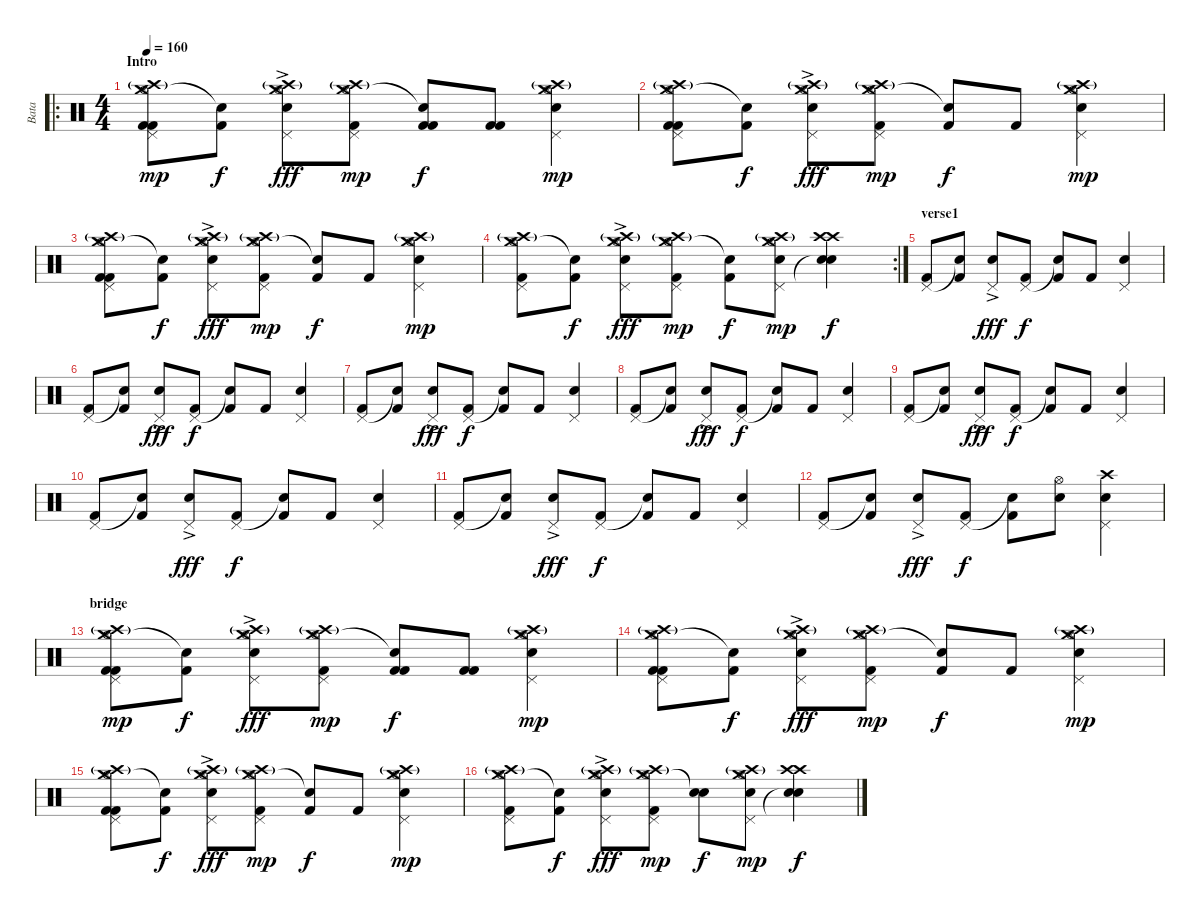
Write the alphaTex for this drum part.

\track ("Bata" "Bata") {instrument percussion}
\staff {score}
\articulation defaults
\ro
\ts (4 4)
\section ("" "Intro")
\tempo 160
\clef neutral
\ks c
("Crash medium (hit)" "Crash high (hit)"{g} "Pedal Hi-Hat (hit)" "Hi-Hat (open)" "Kick (hit) 2" "Kick (hit) 2").8{dy mp} ("Snare (hit)"{t} "Kick (hit) 2").8{dy f} ("Crash medium (hit)"{ac} "Crash high (hit)"{g} "Pedal Hi-Hat (hit)"{ac} "Hi-Hat (open)" "Snare (hit) 2").8{dy fff} ("Crash medium (hit)" "Crash high (hit)"{g} "Pedal Hi-Hat (hit)" "Hi-Hat (open)" "Kick (hit) 2").8{dy mp} ("Snare (hit)"{t} "Kick (hit) 2" "Kick (hit) 2").8{dy f} ("Kick (hit) 2" "Kick (hit) 2").8 ("Crash medium (hit)" "Crash high (hit)"{g} "Pedal Hi-Hat (hit)" "Hi-Hat (open)" "Snare (hit) 2").4{dy mp} |
("Crash medium (hit)" "Crash high (hit)"{g} "Pedal Hi-Hat (hit)" "Hi-Hat (open)" "Kick (hit) 2" "Kick (hit) 2").8 ("Snare (hit)"{t} "Kick (hit) 2").8{dy f} ("Crash medium (hit)"{ac} "Crash high (hit)"{g} "Pedal Hi-Hat (hit)"{ac} "Hi-Hat (open)" "Snare (hit) 2").8{dy fff} ("Crash medium (hit)" "Crash high (hit)"{g} "Pedal Hi-Hat (hit)" "Hi-Hat (open)" "Kick (hit) 2").8{dy mp} ("Snare (hit)"{t} "Kick (hit) 2").8{dy f} "Kick (hit) 2".8 ("Crash medium (hit)" "Crash high (hit)"{g} "Pedal Hi-Hat (hit)" "Hi-Hat (open)" "Snare (hit) 2").4{dy mp} |
("Crash medium (hit)" "Crash high (hit)"{g} "Pedal Hi-Hat (hit)" "Hi-Hat (open)" "Kick (hit) 2" "Kick (hit) 2").8 ("Snare (hit)"{t} "Kick (hit) 2").8{dy f} ("Crash medium (hit)"{ac} "Crash high (hit)"{g} "Pedal Hi-Hat (hit)"{ac} "Hi-Hat (open)" "Snare (hit) 2").8{dy fff} ("Crash medium (hit)" "Crash high (hit)"{g} "Pedal Hi-Hat (hit)" "Hi-Hat (open)" "Kick (hit) 2").8{dy mp} ("Snare (hit)"{t} "Kick (hit) 2").8{dy f} "Kick (hit) 2".8 ("Crash medium (hit)" "Crash high (hit)"{g} "Pedal Hi-Hat (hit)" "Hi-Hat (open)" "Snare (hit) 2").4{dy mp} |
\rc 2
("Crash medium (hit)" "Crash high (hit)"{g} "Pedal Hi-Hat (hit)" "Hi-Hat (open)" "Kick (hit) 2").8 ("Snare (hit)"{t} "Kick (hit) 2").8{dy f} ("Crash medium (hit)"{ac} "Crash high (hit)"{g} "Pedal Hi-Hat (hit)"{ac} "Hi-Hat (open)" "Snare (hit) 2").8{dy fff} ("Crash medium (hit)" "Crash high (hit)"{g} "Pedal Hi-Hat (hit)" "Hi-Hat (open)" "Kick (hit) 2").8{dy mp} ("Snare (hit)"{t} "Kick (hit) 2").8{dy f} ("Crash medium (hit)" "Crash high (hit)"{g} "Pedal Hi-Hat (hit)" "Hi-Hat (open)" "Snare (hit) 2").8{dy mp} ("Crash high (hit)" "Crash high (hit)" "Snare (hit)"{t} "Snare (hit) 2").4{dy f} |
\section ("" "verse1")
("Pedal Hi-Hat (hit)" "Kick (hit) 2").8 ("Snare (hit)"{t} "Kick (hit) 2").8 ("Pedal Hi-Hat (hit)"{ac} "Snare (hit) 2").8{dy fff} ("Pedal Hi-Hat (hit)" "Kick (hit) 2").8{dy f} ("Snare (hit)"{t} "Kick (hit) 2").8 "Kick (hit) 2".8 ("Pedal Hi-Hat (hit)" "Snare (hit) 2").4 |
("Pedal Hi-Hat (hit)" "Kick (hit) 2").8 ("Snare (hit)"{t} "Kick (hit) 2").8 ("Pedal Hi-Hat (hit)"{ac} "Snare (hit) 2").8{dy fff} ("Pedal Hi-Hat (hit)" "Kick (hit) 2").8{dy f} ("Snare (hit)"{t} "Kick (hit) 2").8 "Kick (hit) 2".8 ("Pedal Hi-Hat (hit)" "Snare (hit) 2").4 |
("Pedal Hi-Hat (hit)" "Kick (hit) 2").8 ("Snare (hit)"{t} "Kick (hit) 2").8 ("Pedal Hi-Hat (hit)"{ac} "Snare (hit) 2").8{dy fff} ("Pedal Hi-Hat (hit)" "Kick (hit) 2").8{dy f} ("Snare (hit)"{t} "Kick (hit) 2").8 "Kick (hit) 2".8 ("Pedal Hi-Hat (hit)" "Snare (hit) 2").4 |
("Pedal Hi-Hat (hit)" "Kick (hit) 2").8 ("Snare (hit)"{t} "Kick (hit) 2").8 ("Pedal Hi-Hat (hit)"{ac} "Snare (hit) 2").8{dy fff} ("Pedal Hi-Hat (hit)" "Kick (hit) 2").8{dy f} ("Snare (hit)"{t} "Kick (hit) 2").8 "Kick (hit) 2".8 ("Pedal Hi-Hat (hit)" "Snare (hit) 2").4 |
("Pedal Hi-Hat (hit)" "Kick (hit) 2").8 ("Snare (hit)"{t} "Kick (hit) 2").8 ("Pedal Hi-Hat (hit)"{ac} "Snare (hit) 2").8{dy fff} ("Pedal Hi-Hat (hit)" "Kick (hit) 2").8{dy f} ("Snare (hit)"{t} "Kick (hit) 2").8 "Kick (hit) 2".8 ("Pedal Hi-Hat (hit)" "Snare (hit) 2").4 |
("Pedal Hi-Hat (hit)" "Kick (hit) 2").8 ("Snare (hit)"{t} "Kick (hit) 2").8 ("Pedal Hi-Hat (hit)"{ac} "Snare (hit) 2").8{dy fff} ("Pedal Hi-Hat (hit)" "Kick (hit) 2").8{dy f} ("Snare (hit)"{t} "Kick (hit) 2").8 "Kick (hit) 2".8 ("Pedal Hi-Hat (hit)" "Snare (hit) 2").4 |
("Pedal Hi-Hat (hit)" "Kick (hit) 2").8 ("Snare (hit)"{t} "Kick (hit) 2").8 ("Pedal Hi-Hat (hit)"{ac} "Snare (hit) 2").8{dy fff} ("Pedal Hi-Hat (hit)" "Kick (hit) 2").8{dy f} ("Snare (hit)"{t} "Kick (hit) 2").8 "Kick (hit) 2".8 ("Pedal Hi-Hat (hit)" "Snare (hit) 2").4 |
("Pedal Hi-Hat (hit)" "Kick (hit) 2").8 ("Snare (hit)"{t} "Kick (hit) 2").8 ("Pedal Hi-Hat (hit)"{ac} "Snare (hit) 2").8{dy fff} ("Pedal Hi-Hat (hit)" "Kick (hit) 2").8{dy f} ("Snare (hit)"{t} "Kick (hit) 2").8 ("Hi-Hat (open)" "Snare (hit) 2").8 ("Crash high (hit)" "Pedal Hi-Hat (hit)" "Snare (hit) 2").4 |
\section ("" "bridge")
("Crash medium (hit)" "Crash high (hit)"{g} "Pedal Hi-Hat (hit)" "Hi-Hat (open)" "Kick (hit) 2" "Kick (hit) 2").8{dy mp} ("Snare (hit)"{t} "Kick (hit) 2").8{dy f} ("Crash medium (hit)"{ac} "Crash high (hit)"{g} "Pedal Hi-Hat (hit)"{ac} "Hi-Hat (open)" "Snare (hit) 2").8{dy fff} ("Crash medium (hit)" "Crash high (hit)"{g} "Pedal Hi-Hat (hit)" "Hi-Hat (open)" "Kick (hit) 2").8{dy mp} ("Snare (hit)"{t} "Kick (hit) 2" "Kick (hit) 2").8{dy f} ("Kick (hit) 2" "Kick (hit) 2").8 ("Crash medium (hit)" "Crash high (hit)"{g} "Pedal Hi-Hat (hit)" "Hi-Hat (open)" "Snare (hit) 2").4{dy mp} |
("Crash medium (hit)" "Crash high (hit)"{g} "Pedal Hi-Hat (hit)" "Hi-Hat (open)" "Kick (hit) 2" "Kick (hit) 2").8 ("Snare (hit)"{t} "Kick (hit) 2").8{dy f} ("Crash medium (hit)"{ac} "Crash high (hit)"{g} "Pedal Hi-Hat (hit)"{ac} "Hi-Hat (open)" "Snare (hit) 2").8{dy fff} ("Crash medium (hit)" "Crash high (hit)"{g} "Pedal Hi-Hat (hit)" "Hi-Hat (open)" "Kick (hit) 2").8{dy mp} ("Snare (hit)"{t} "Kick (hit) 2").8{dy f} "Kick (hit) 2".8 ("Crash medium (hit)" "Crash high (hit)"{g} "Pedal Hi-Hat (hit)" "Hi-Hat (open)" "Snare (hit) 2").4{dy mp} |
("Crash medium (hit)" "Crash high (hit)"{g} "Pedal Hi-Hat (hit)" "Hi-Hat (open)" "Kick (hit) 2" "Kick (hit) 2").8 ("Snare (hit)"{t} "Kick (hit) 2").8{dy f} ("Crash medium (hit)"{ac} "Crash high (hit)"{g} "Pedal Hi-Hat (hit)"{ac} "Hi-Hat (open)" "Snare (hit) 2").8{dy fff} ("Crash medium (hit)" "Crash high (hit)"{g} "Pedal Hi-Hat (hit)" "Hi-Hat (open)" "Kick (hit) 2").8{dy mp} ("Snare (hit)"{t} "Kick (hit) 2").8{dy f} "Kick (hit) 2".8 ("Crash medium (hit)" "Crash high (hit)"{g} "Pedal Hi-Hat (hit)" "Hi-Hat (open)" "Snare (hit) 2").4{dy mp} |
("Crash medium (hit)" "Crash high (hit)"{g} "Pedal Hi-Hat (hit)" "Hi-Hat (open)" "Kick (hit) 2").8 ("Snare (hit)"{t} "Kick (hit) 2").8{dy f} ("Crash medium (hit)"{ac} "Crash high (hit)"{g} "Pedal Hi-Hat (hit)"{ac} "Hi-Hat (open)" "Snare (hit) 2").8{dy fff} ("Crash medium (hit)" "Crash high (hit)"{g} "Pedal Hi-Hat (hit)" "Hi-Hat (open)" "Kick (hit) 2").8{dy mp} ("Snare (hit)"{t} "Snare (hit) 2").8{dy f} ("Crash medium (hit)" "Crash high (hit)"{g} "Pedal Hi-Hat (hit)" "Hi-Hat (open)" "Snare (hit) 2").8{dy mp} ("Crash high (hit)" "Crash high (hit)" "Snare (hit)"{t} "Snare (hit) 2").4{dy f}
